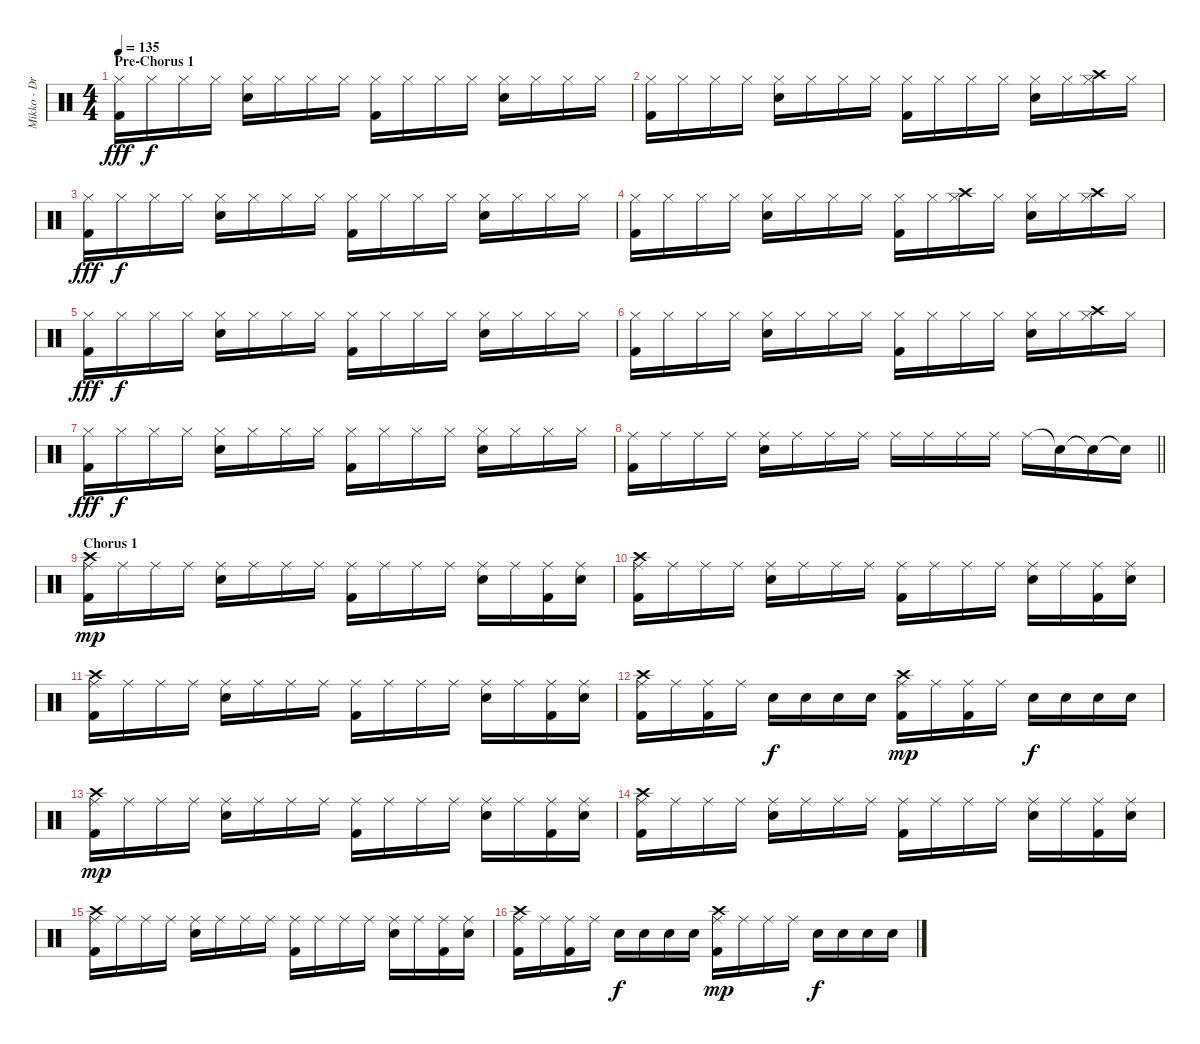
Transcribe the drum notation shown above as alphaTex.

\track ("Mikko - Drums" "Mikko - Dr") {instrument percussion}
\staff {score}
\articulation defaults
\ts (4 4)
\section ("" "Pre-Chorus 1")
\tempo 135
\clef neutral
\ks c
("Hi-Hat (closed)" "Kick (hit) 2").16{dy fff} "Hi-Hat (closed)".16{dy f} "Hi-Hat (closed)".16 "Hi-Hat (closed)".16 ("Hi-Hat (closed)" "Snare (hit) 2").16 "Hi-Hat (closed)".16 "Hi-Hat (closed)".16 "Hi-Hat (closed)".16 ("Hi-Hat (closed)" "Kick (hit) 2").16 "Hi-Hat (closed)".16 "Hi-Hat (closed)".16 "Hi-Hat (closed)".16 ("Hi-Hat (closed)" "Snare (hit) 2").16 "Hi-Hat (closed)".16 "Hi-Hat (closed)".16 "Hi-Hat (closed)".16 |
("Hi-Hat (closed)" "Kick (hit) 2").16 "Hi-Hat (closed)".16 "Hi-Hat (closed)".16 "Hi-Hat (closed)".16 ("Hi-Hat (closed)" "Snare (hit) 2").16 "Hi-Hat (closed)".16 "Hi-Hat (closed)".16 "Hi-Hat (closed)".16 ("Hi-Hat (closed)" "Kick (hit) 2").16 "Hi-Hat (closed)".16 "Hi-Hat (closed)".16 "Hi-Hat (closed)".16 ("Hi-Hat (closed)" "Snare (hit) 2").16 "Hi-Hat (closed)".16 ("Hi-Hat (closed)" "Crash high (hit)").16 "Hi-Hat (closed)".16 |
("Hi-Hat (closed)" "Kick (hit) 2").16{dy fff} "Hi-Hat (closed)".16{dy f} "Hi-Hat (closed)".16 "Hi-Hat (closed)".16 ("Hi-Hat (closed)" "Snare (hit) 2").16 "Hi-Hat (closed)".16 "Hi-Hat (closed)".16 "Hi-Hat (closed)".16 ("Hi-Hat (closed)" "Kick (hit) 2").16 "Hi-Hat (closed)".16 "Hi-Hat (closed)".16 "Hi-Hat (closed)".16 ("Hi-Hat (closed)" "Snare (hit) 2").16 "Hi-Hat (closed)".16 "Hi-Hat (closed)".16 "Hi-Hat (closed)".16 |
("Hi-Hat (closed)" "Kick (hit) 2").16 "Hi-Hat (closed)".16 "Hi-Hat (closed)".16 "Hi-Hat (closed)".16 ("Hi-Hat (closed)" "Snare (hit) 2").16 "Hi-Hat (closed)".16 "Hi-Hat (closed)".16 "Hi-Hat (closed)".16 ("Hi-Hat (closed)" "Kick (hit) 2").16 "Hi-Hat (closed)".16 ("Hi-Hat (closed)" "Crash high (hit)").16 "Hi-Hat (closed)".16 ("Hi-Hat (closed)" "Snare (hit) 2").16 "Hi-Hat (closed)".16 ("Hi-Hat (closed)" "Crash high (hit)").16 "Hi-Hat (closed)".16 |
("Hi-Hat (closed)" "Kick (hit) 2").16{dy fff} "Hi-Hat (closed)".16{dy f} "Hi-Hat (closed)".16 "Hi-Hat (closed)".16 ("Hi-Hat (closed)" "Snare (hit) 2").16 "Hi-Hat (closed)".16 "Hi-Hat (closed)".16 "Hi-Hat (closed)".16 ("Hi-Hat (closed)" "Kick (hit) 2").16 "Hi-Hat (closed)".16 "Hi-Hat (closed)".16 "Hi-Hat (closed)".16 ("Hi-Hat (closed)" "Snare (hit) 2").16 "Hi-Hat (closed)".16 "Hi-Hat (closed)".16 "Hi-Hat (closed)".16 |
("Hi-Hat (closed)" "Kick (hit) 2").16 "Hi-Hat (closed)".16 "Hi-Hat (closed)".16 "Hi-Hat (closed)".16 ("Hi-Hat (closed)" "Snare (hit) 2").16 "Hi-Hat (closed)".16 "Hi-Hat (closed)".16 "Hi-Hat (closed)".16 ("Hi-Hat (closed)" "Kick (hit) 2").16 "Hi-Hat (closed)".16 "Hi-Hat (closed)".16 "Hi-Hat (closed)".16 ("Hi-Hat (closed)" "Snare (hit) 2").16 "Hi-Hat (closed)".16 ("Hi-Hat (closed)" "Crash high (hit)").16 "Hi-Hat (closed)".16 |
("Hi-Hat (closed)" "Kick (hit) 2").16{dy fff} "Hi-Hat (closed)".16{dy f} "Hi-Hat (closed)".16 "Hi-Hat (closed)".16 ("Hi-Hat (closed)" "Snare (hit) 2").16 "Hi-Hat (closed)".16 "Hi-Hat (closed)".16 "Hi-Hat (closed)".16 ("Hi-Hat (closed)" "Kick (hit) 2").16 "Hi-Hat (closed)".16 "Hi-Hat (closed)".16 "Hi-Hat (closed)".16 ("Hi-Hat (closed)" "Snare (hit) 2").16 "Hi-Hat (closed)".16 "Hi-Hat (closed)".16 "Hi-Hat (closed)".16 |
\barLineRight lightlight
("Ride (middle)" "Kick (hit) 2").16 "Ride (middle)".16 "Ride (middle)".16 "Ride (middle)".16 ("Ride (middle)" "Snare (hit) 2").16 "Ride (middle)".16 "Ride (middle)".16 "Ride (middle)".16 "Ride (middle)".16 "Ride (middle)".16 "Ride (middle)".16 "Ride (middle)".16 "Ride (middle)".16 "Snare (hit)"{t}.16 "Snare (hit)"{t}.16 "Snare (hit)"{t}.16 |
\section ("" "Chorus 1")
("Ride (middle)" "Crash high (hit)" "Kick (hit) 2").16{dy mp} "Ride (middle)".16 "Ride (middle)".16 "Ride (middle)".16 ("Ride (middle)" "Snare (hit) 2").16 "Ride (middle)".16 "Ride (middle)".16 "Ride (middle)".16 ("Ride (middle)" "Kick (hit) 2").16 "Ride (middle)".16 "Ride (middle)".16 "Ride (middle)".16 ("Ride (middle)" "Snare (hit) 2").16 "Ride (middle)".16 ("Ride (middle)" "Kick (hit) 2").16 ("Ride (middle)" "Snare (hit) 2").16 |
("Ride (middle)" "Crash high (hit)" "Kick (hit) 2").16 "Ride (middle)".16 "Ride (middle)".16 "Ride (middle)".16 ("Ride (middle)" "Snare (hit) 2").16 "Ride (middle)".16 "Ride (middle)".16 "Ride (middle)".16 ("Ride (middle)" "Kick (hit) 2").16 "Ride (middle)".16 "Ride (middle)".16 "Ride (middle)".16 ("Ride (middle)" "Snare (hit) 2").16 "Ride (middle)".16 ("Ride (middle)" "Kick (hit) 2").16 ("Ride (middle)" "Snare (hit) 2").16 |
("Ride (middle)" "Crash high (hit)" "Kick (hit) 2").16 "Ride (middle)".16 "Ride (middle)".16 "Ride (middle)".16 ("Ride (middle)" "Snare (hit) 2").16 "Ride (middle)".16 "Ride (middle)".16 "Ride (middle)".16 ("Ride (middle)" "Kick (hit) 2").16 "Ride (middle)".16 "Ride (middle)".16 "Ride (middle)".16 ("Ride (middle)" "Snare (hit) 2").16 "Ride (middle)".16 ("Ride (middle)" "Kick (hit) 2").16 ("Ride (middle)" "Snare (hit) 2").16 |
("Ride (middle)" "Crash high (hit)" "Kick (hit) 2").16 "Ride (middle)".16 ("Ride (middle)" "Kick (hit) 2").16 "Ride (middle)".16 "Snare (hit) 2".16{dy f} "Snare (hit) 2".16 "Snare (hit) 2".16 "Snare (hit) 2".16 ("Ride (middle)" "Crash high (hit)" "Kick (hit) 2").16{dy mp} "Ride (middle)".16 ("Ride (middle)" "Kick (hit) 2").16 "Ride (middle)".16 "Snare (hit) 2".16{dy f} "Snare (hit) 2".16 "Snare (hit) 2".16 "Snare (hit) 2".16 |
("Ride (middle)" "Crash high (hit)" "Kick (hit) 2").16{dy mp} "Ride (middle)".16 "Ride (middle)".16 "Ride (middle)".16 ("Ride (middle)" "Snare (hit) 2").16 "Ride (middle)".16 "Ride (middle)".16 "Ride (middle)".16 ("Ride (middle)" "Kick (hit) 2").16 "Ride (middle)".16 "Ride (middle)".16 "Ride (middle)".16 ("Ride (middle)" "Snare (hit) 2").16 "Ride (middle)".16 ("Ride (middle)" "Kick (hit) 2").16 ("Ride (middle)" "Snare (hit) 2").16 |
("Ride (middle)" "Crash high (hit)" "Kick (hit) 2").16 "Ride (middle)".16 "Ride (middle)".16 "Ride (middle)".16 ("Ride (middle)" "Snare (hit) 2").16 "Ride (middle)".16 "Ride (middle)".16 "Ride (middle)".16 ("Ride (middle)" "Kick (hit) 2").16 "Ride (middle)".16 "Ride (middle)".16 "Ride (middle)".16 ("Ride (middle)" "Snare (hit) 2").16 "Ride (middle)".16 ("Ride (middle)" "Kick (hit) 2").16 ("Ride (middle)" "Snare (hit) 2").16 |
("Ride (middle)" "Crash high (hit)" "Kick (hit) 2").16 "Ride (middle)".16 "Ride (middle)".16 "Ride (middle)".16 ("Ride (middle)" "Snare (hit) 2").16 "Ride (middle)".16 "Ride (middle)".16 "Ride (middle)".16 ("Ride (middle)" "Kick (hit) 2").16 "Ride (middle)".16 "Ride (middle)".16 "Ride (middle)".16 ("Ride (middle)" "Snare (hit) 2").16 "Ride (middle)".16 ("Ride (middle)" "Kick (hit) 2").16 ("Ride (middle)" "Snare (hit) 2").16 |
("Ride (middle)" "Crash high (hit)" "Kick (hit) 2").16 "Ride (middle)".16 ("Ride (middle)" "Kick (hit) 2").16 "Ride (middle)".16 "Snare (hit) 2".16{dy f} "Snare (hit) 2".16 "Snare (hit) 2".16 "Snare (hit) 2".16 ("Ride (middle)" "Crash high (hit)" "Kick (hit) 2").16{dy mp} "Ride (middle)".16 "Ride (middle)".16 "Ride (middle)".16 "Snare (hit) 2".16{dy f} "Snare (hit) 2".16 "Snare (hit) 2".16 "Snare (hit) 2".16
